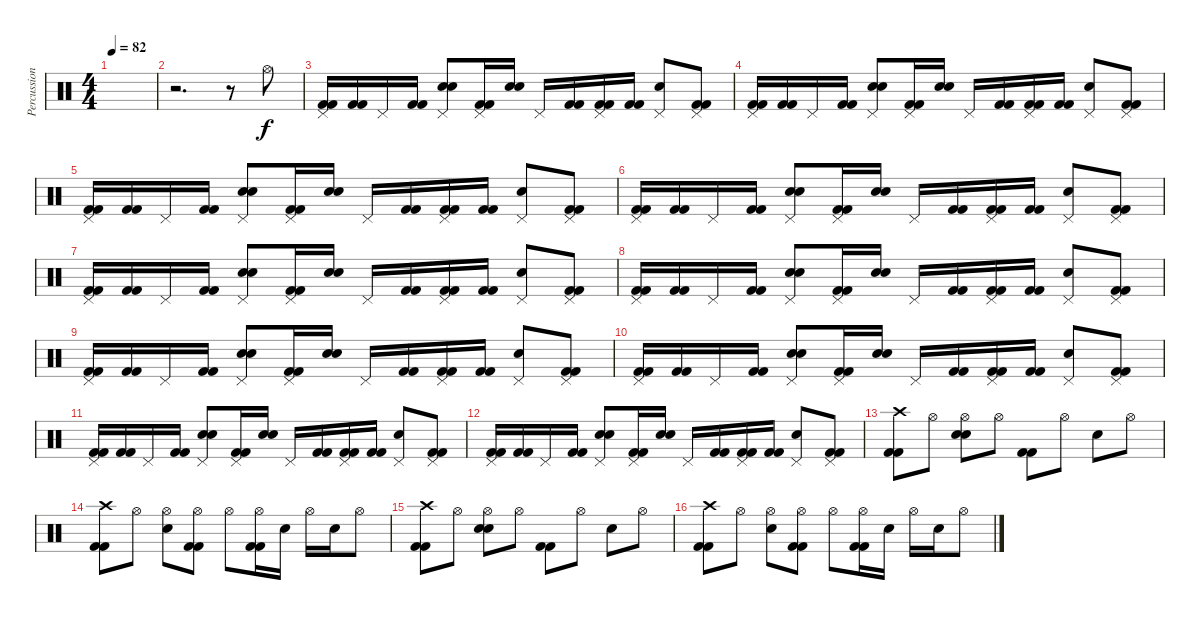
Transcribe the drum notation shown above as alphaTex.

\track ("Percussion" "Percussion") {instrument percussion}
\staff {score}
\articulation defaults
\ts (4 4)
\tempo 82
\clef neutral
\ks c
|
r.2{d} r.8 "Hi-Hat (open)".8 |
("Pedal Hi-Hat (hit)" "Kick (hit) 2" "Kick (hit) 2").16 ("Kick (hit) 2" "Kick (hit) 2").16 "Pedal Hi-Hat (hit)".16 ("Kick (hit) 2" "Kick (hit) 2").16 ("Pedal Hi-Hat (hit)" "Electric Snare (hit)" "Electric Snare (hit)").8 ("Pedal Hi-Hat (hit)" "Kick (hit) 2" "Kick (hit) 2").16 ("Electric Snare (hit)" "Electric Snare (hit)").16 "Pedal Hi-Hat (hit)".16 ("Kick (hit) 2" "Kick (hit) 2").16 ("Pedal Hi-Hat (hit)" "Kick (hit) 2" "Kick (hit) 2").16 ("Kick (hit) 2" "Kick (hit) 2").16 ("Pedal Hi-Hat (hit)" "Electric Snare (hit)").8 ("Pedal Hi-Hat (hit)" "Kick (hit) 2" "Kick (hit) 2").8 |
("Pedal Hi-Hat (hit)" "Kick (hit) 2" "Kick (hit) 2").16 ("Kick (hit) 2" "Kick (hit) 2").16 "Pedal Hi-Hat (hit)".16 ("Kick (hit) 2" "Kick (hit) 2").16 ("Pedal Hi-Hat (hit)" "Electric Snare (hit)" "Electric Snare (hit)").8 ("Pedal Hi-Hat (hit)" "Kick (hit) 2" "Kick (hit) 2").16 ("Electric Snare (hit)" "Electric Snare (hit)").16 "Pedal Hi-Hat (hit)".16 ("Kick (hit) 2" "Kick (hit) 2").16 ("Pedal Hi-Hat (hit)" "Kick (hit) 2" "Kick (hit) 2").16 ("Kick (hit) 2" "Kick (hit) 2").16 ("Pedal Hi-Hat (hit)" "Electric Snare (hit)").8 ("Pedal Hi-Hat (hit)" "Kick (hit) 2" "Kick (hit) 2").8 |
("Pedal Hi-Hat (hit)" "Kick (hit) 2" "Kick (hit) 2").16 ("Kick (hit) 2" "Kick (hit) 2").16 "Pedal Hi-Hat (hit)".16 ("Kick (hit) 2" "Kick (hit) 2").16 ("Pedal Hi-Hat (hit)" "Electric Snare (hit)" "Electric Snare (hit)").8 ("Pedal Hi-Hat (hit)" "Kick (hit) 2" "Kick (hit) 2").16 ("Electric Snare (hit)" "Electric Snare (hit)").16 "Pedal Hi-Hat (hit)".16 ("Kick (hit) 2" "Kick (hit) 2").16 ("Pedal Hi-Hat (hit)" "Kick (hit) 2" "Kick (hit) 2").16 ("Kick (hit) 2" "Kick (hit) 2").16 ("Pedal Hi-Hat (hit)" "Electric Snare (hit)").8 ("Pedal Hi-Hat (hit)" "Kick (hit) 2" "Kick (hit) 2").8 |
("Pedal Hi-Hat (hit)" "Kick (hit) 2" "Kick (hit) 2").16 ("Kick (hit) 2" "Kick (hit) 2").16 "Pedal Hi-Hat (hit)".16 ("Kick (hit) 2" "Kick (hit) 2").16 ("Pedal Hi-Hat (hit)" "Electric Snare (hit)" "Electric Snare (hit)").8 ("Pedal Hi-Hat (hit)" "Kick (hit) 2" "Kick (hit) 2").16 ("Electric Snare (hit)" "Electric Snare (hit)").16 "Pedal Hi-Hat (hit)".16 ("Kick (hit) 2" "Kick (hit) 2").16 ("Pedal Hi-Hat (hit)" "Kick (hit) 2" "Kick (hit) 2").16 ("Kick (hit) 2" "Kick (hit) 2").16 ("Pedal Hi-Hat (hit)" "Electric Snare (hit)").8 ("Pedal Hi-Hat (hit)" "Kick (hit) 2" "Kick (hit) 2").8 |
("Pedal Hi-Hat (hit)" "Kick (hit) 2" "Kick (hit) 2").16 ("Kick (hit) 2" "Kick (hit) 2").16 "Pedal Hi-Hat (hit)".16 ("Kick (hit) 2" "Kick (hit) 2").16 ("Pedal Hi-Hat (hit)" "Electric Snare (hit)" "Electric Snare (hit)").8 ("Pedal Hi-Hat (hit)" "Kick (hit) 2" "Kick (hit) 2").16 ("Electric Snare (hit)" "Electric Snare (hit)").16 "Pedal Hi-Hat (hit)".16 ("Kick (hit) 2" "Kick (hit) 2").16 ("Pedal Hi-Hat (hit)" "Kick (hit) 2" "Kick (hit) 2").16 ("Kick (hit) 2" "Kick (hit) 2").16 ("Pedal Hi-Hat (hit)" "Electric Snare (hit)").8 ("Pedal Hi-Hat (hit)" "Kick (hit) 2" "Kick (hit) 2").8 |
("Pedal Hi-Hat (hit)" "Kick (hit) 2" "Kick (hit) 2").16 ("Kick (hit) 2" "Kick (hit) 2").16 "Pedal Hi-Hat (hit)".16 ("Kick (hit) 2" "Kick (hit) 2").16 ("Pedal Hi-Hat (hit)" "Electric Snare (hit)" "Electric Snare (hit)").8 ("Pedal Hi-Hat (hit)" "Kick (hit) 2" "Kick (hit) 2").16 ("Electric Snare (hit)" "Electric Snare (hit)").16 "Pedal Hi-Hat (hit)".16 ("Kick (hit) 2" "Kick (hit) 2").16 ("Pedal Hi-Hat (hit)" "Kick (hit) 2" "Kick (hit) 2").16 ("Kick (hit) 2" "Kick (hit) 2").16 ("Pedal Hi-Hat (hit)" "Electric Snare (hit)").8 ("Pedal Hi-Hat (hit)" "Kick (hit) 2" "Kick (hit) 2").8 |
("Pedal Hi-Hat (hit)" "Kick (hit) 2" "Kick (hit) 2").16 ("Kick (hit) 2" "Kick (hit) 2").16 "Pedal Hi-Hat (hit)".16 ("Kick (hit) 2" "Kick (hit) 2").16 ("Pedal Hi-Hat (hit)" "Electric Snare (hit)" "Electric Snare (hit)").8 ("Pedal Hi-Hat (hit)" "Kick (hit) 2" "Kick (hit) 2").16 ("Electric Snare (hit)" "Electric Snare (hit)").16 "Pedal Hi-Hat (hit)".16 ("Kick (hit) 2" "Kick (hit) 2").16 ("Pedal Hi-Hat (hit)" "Kick (hit) 2" "Kick (hit) 2").16 ("Kick (hit) 2" "Kick (hit) 2").16 ("Pedal Hi-Hat (hit)" "Electric Snare (hit)").8 ("Pedal Hi-Hat (hit)" "Kick (hit) 2" "Kick (hit) 2").8 |
("Pedal Hi-Hat (hit)" "Kick (hit) 2" "Kick (hit) 2").16 ("Kick (hit) 2" "Kick (hit) 2").16 "Pedal Hi-Hat (hit)".16 ("Kick (hit) 2" "Kick (hit) 2").16 ("Pedal Hi-Hat (hit)" "Electric Snare (hit)" "Electric Snare (hit)").8 ("Pedal Hi-Hat (hit)" "Kick (hit) 2" "Kick (hit) 2").16 ("Electric Snare (hit)" "Electric Snare (hit)").16 "Pedal Hi-Hat (hit)".16 ("Kick (hit) 2" "Kick (hit) 2").16 ("Pedal Hi-Hat (hit)" "Kick (hit) 2" "Kick (hit) 2").16 ("Kick (hit) 2" "Kick (hit) 2").16 ("Pedal Hi-Hat (hit)" "Electric Snare (hit)").8 ("Pedal Hi-Hat (hit)" "Kick (hit) 2" "Kick (hit) 2").8 |
("Pedal Hi-Hat (hit)" "Kick (hit) 2" "Kick (hit) 2").16 ("Kick (hit) 2" "Kick (hit) 2").16 "Pedal Hi-Hat (hit)".16 ("Kick (hit) 2" "Kick (hit) 2").16 ("Pedal Hi-Hat (hit)" "Electric Snare (hit)" "Electric Snare (hit)").8 ("Pedal Hi-Hat (hit)" "Kick (hit) 2" "Kick (hit) 2").16 ("Electric Snare (hit)" "Electric Snare (hit)").16 "Pedal Hi-Hat (hit)".16 ("Kick (hit) 2" "Kick (hit) 2").16 ("Pedal Hi-Hat (hit)" "Kick (hit) 2" "Kick (hit) 2").16 ("Kick (hit) 2" "Kick (hit) 2").16 ("Pedal Hi-Hat (hit)" "Electric Snare (hit)").8 ("Pedal Hi-Hat (hit)" "Kick (hit) 2" "Kick (hit) 2").8 |
("Pedal Hi-Hat (hit)" "Kick (hit) 2" "Kick (hit) 2").16 ("Kick (hit) 2" "Kick (hit) 2").16 "Pedal Hi-Hat (hit)".16 ("Kick (hit) 2" "Kick (hit) 2").16 ("Pedal Hi-Hat (hit)" "Electric Snare (hit)" "Electric Snare (hit)").8 ("Pedal Hi-Hat (hit)" "Kick (hit) 2" "Kick (hit) 2").16 ("Electric Snare (hit)" "Electric Snare (hit)").16 "Pedal Hi-Hat (hit)".16 ("Kick (hit) 2" "Kick (hit) 2").16 ("Pedal Hi-Hat (hit)" "Kick (hit) 2" "Kick (hit) 2").16 ("Kick (hit) 2" "Kick (hit) 2").16 ("Pedal Hi-Hat (hit)" "Electric Snare (hit)").8 ("Pedal Hi-Hat (hit)" "Kick (hit) 2" "Kick (hit) 2").8 |
("Crash high (hit)" "Kick (hit) 2" "Kick (hit) 2").8 "Hi-Hat (open)".8 ("Hi-Hat (open)" "Electric Snare (hit)" "Electric Snare (hit)").8 "Hi-Hat (open)".8 ("Kick (hit) 2" "Kick (hit) 2").8 "Hi-Hat (open)".8 "Electric Snare (hit)".8 "Hi-Hat (open)".8 |
("Crash high (hit)" "Kick (hit) 2" "Kick (hit) 2").8 "Hi-Hat (open)".8 ("Hi-Hat (open)" "Electric Snare (hit)").8 ("Hi-Hat (open)" "Kick (hit) 2" "Kick (hit) 2").8 "Hi-Hat (open)".8 ("Hi-Hat (open)" "Kick (hit) 2" "Kick (hit) 2").16 "Electric Snare (hit)".16 "Hi-Hat (open)".16 "Electric Snare (hit)".16 "Hi-Hat (open)".8 |
("Crash high (hit)" "Kick (hit) 2" "Kick (hit) 2").8 "Hi-Hat (open)".8 ("Hi-Hat (open)" "Electric Snare (hit)" "Electric Snare (hit)").8 "Hi-Hat (open)".8 ("Kick (hit) 2" "Kick (hit) 2").8 "Hi-Hat (open)".8 "Electric Snare (hit)".8 "Hi-Hat (open)".8 |
("Crash high (hit)" "Kick (hit) 2" "Kick (hit) 2").8 "Hi-Hat (open)".8 ("Hi-Hat (open)" "Electric Snare (hit)").8 ("Hi-Hat (open)" "Kick (hit) 2" "Kick (hit) 2").8 "Hi-Hat (open)".8 ("Hi-Hat (open)" "Kick (hit) 2" "Kick (hit) 2").16 "Electric Snare (hit)".16 "Hi-Hat (open)".16 "Electric Snare (hit)".16 "Hi-Hat (open)".8
